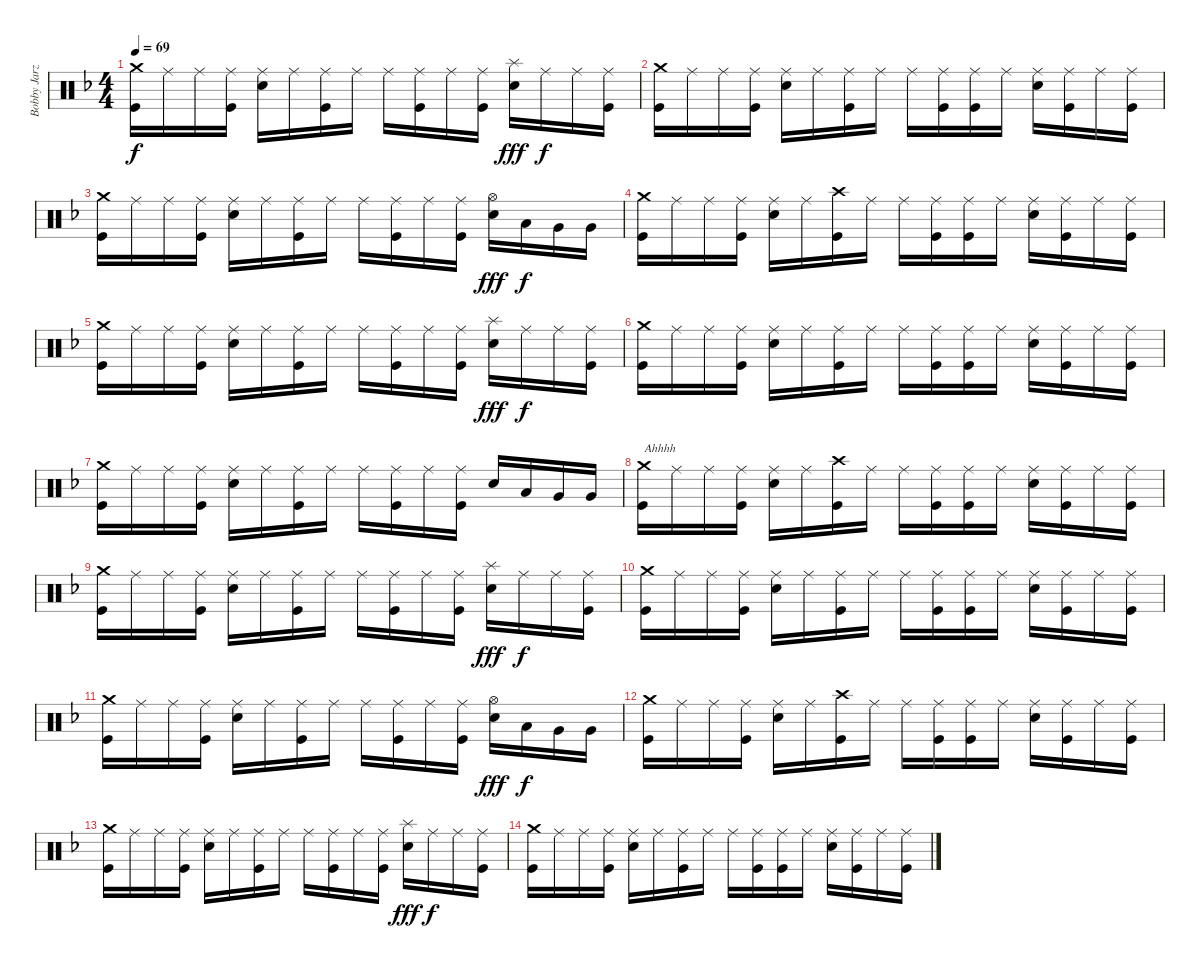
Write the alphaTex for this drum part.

\track ("Bobby Jarzombek" "Bobby Jarz") {instrument percussion}
\staff {score}
\articulation defaults
\ts (4 4)
\tempo 69
\clef neutral
\ks dminor
("Crash medium (hit)" "Kick (hit)").16{dy f} "Ride (middle)".16 "Ride (middle)".16 ("Ride (middle)" "Kick (hit)").16 ("Ride (middle)" "Electric Snare (hit)").16 "Ride (middle)".16 ("Ride (middle)" "Kick (hit)").16 "Ride (middle)".16 "Ride (middle)".16 ("Ride (middle)" "Kick (hit)").16 "Ride (middle)".16 ("Ride (middle)" "Kick (hit)").16 ("Splash (hit)" "Electric Snare (hit)").16{dy fff} "Ride (middle)".16{dy f} "Ride (middle)".16 ("Ride (middle)" "Kick (hit)").16 |
("Crash medium (hit)" "Kick (hit)").16 "Ride (middle)".16 "Ride (middle)".16 ("Ride (middle)" "Kick (hit)").16 ("Ride (middle)" "Electric Snare (hit)").16 "Ride (middle)".16 ("Ride (middle)" "Kick (hit)").16 "Ride (middle)".16 "Ride (middle)".16 ("Ride (middle)" "Kick (hit)").16 ("Ride (middle)" "Kick (hit)").16 "Ride (middle)".16 ("Ride (middle)" "Electric Snare (hit)").16 ("Ride (middle)" "Kick (hit)").16 "Ride (middle)".16 ("Ride (middle)" "Kick (hit)").16 |
("Crash medium (hit)" "Kick (hit)").16 "Ride (middle)".16 "Ride (middle)".16 ("Ride (middle)" "Kick (hit)").16 ("Ride (middle)" "Electric Snare (hit)").16 "Ride (middle)".16 ("Ride (middle)" "Kick (hit)").16 "Ride (middle)".16 "Ride (middle)".16 ("Ride (middle)" "Kick (hit)").16 "Ride (middle)".16 ("Ride (middle)" "Kick (hit)").16 ("Hi-Hat (open)" "Electric Snare (hit)").16{dy fff} "Low Tom (hit)".16{dy f} "Very Low Tom (hit)".16 "Very Low Tom (hit)".16 |
("Crash medium (hit)" "Kick (hit)").16 "Ride (middle)".16 "Ride (middle)".16 ("Ride (middle)" "Kick (hit)").16 ("Ride (middle)" "Electric Snare (hit)").16 "Ride (middle)".16 ("Crash high (hit)" "Kick (hit)").16 "Ride (middle)".16 "Ride (middle)".16 ("Ride (middle)" "Kick (hit)").16 ("Ride (middle)" "Kick (hit)").16 "Ride (middle)".16 ("Ride (middle)" "Electric Snare (hit)").16 ("Ride (middle)" "Kick (hit)").16 "Ride (middle)".16 ("Ride (middle)" "Kick (hit)").16 |
("Crash medium (hit)" "Kick (hit)").16 "Ride (middle)".16 "Ride (middle)".16 ("Ride (middle)" "Kick (hit)").16 ("Ride (middle)" "Electric Snare (hit)").16 "Ride (middle)".16 ("Ride (middle)" "Kick (hit)").16 "Ride (middle)".16 "Ride (middle)".16 ("Ride (middle)" "Kick (hit)").16 "Ride (middle)".16 ("Ride (middle)" "Kick (hit)").16 ("Splash (hit)" "Electric Snare (hit)").16{dy fff} "Ride (middle)".16{dy f} "Ride (middle)".16 ("Ride (middle)" "Kick (hit)").16 |
("Crash medium (hit)" "Kick (hit)").16 "Ride (middle)".16 "Ride (middle)".16 ("Ride (middle)" "Kick (hit)").16 ("Ride (middle)" "Electric Snare (hit)").16 "Ride (middle)".16 ("Ride (middle)" "Kick (hit)").16 "Ride (middle)".16 "Ride (middle)".16 ("Ride (middle)" "Kick (hit)").16 ("Ride (middle)" "Kick (hit)").16 "Ride (middle)".16 ("Ride (middle)" "Electric Snare (hit)").16 ("Ride (middle)" "Kick (hit)").16 "Ride (middle)".16 ("Ride (middle)" "Kick (hit)").16 |
("Crash medium (hit)" "Kick (hit)").16 "Ride (middle)".16 "Ride (middle)".16 ("Ride (middle)" "Kick (hit)").16 ("Ride (middle)" "Electric Snare (hit)").16 "Ride (middle)".16 ("Ride (middle)" "Kick (hit)").16 "Ride (middle)".16 "Ride (middle)".16 ("Ride (middle)" "Kick (hit)").16 "Ride (middle)".16 ("Ride (middle)" "Kick (hit)").16 "Electric Snare (hit)".16 "Low Tom (hit)".16 "Very Low Tom (hit)".16 "Very Low Tom (hit)".16 |
("Crash medium (hit)" "Kick (hit)").16{txt "Ahhhh"} "Ride (middle)".16 "Ride (middle)".16 ("Ride (middle)" "Kick (hit)").16 ("Ride (middle)" "Electric Snare (hit)").16 "Ride (middle)".16 ("Crash high (hit)" "Kick (hit)").16 "Ride (middle)".16 "Ride (middle)".16 ("Ride (middle)" "Kick (hit)").16 ("Ride (middle)" "Kick (hit)").16 "Ride (middle)".16 ("Ride (middle)" "Electric Snare (hit)").16 ("Ride (middle)" "Kick (hit)").16 "Ride (middle)".16 ("Ride (middle)" "Kick (hit)").16 |
("Crash medium (hit)" "Kick (hit)").16{volume 9} "Ride (middle)".16 "Ride (middle)".16 ("Ride (middle)" "Kick (hit)").16 ("Ride (middle)" "Electric Snare (hit)").16 "Ride (middle)".16 ("Ride (middle)" "Kick (hit)").16 "Ride (middle)".16 "Ride (middle)".16 ("Ride (middle)" "Kick (hit)").16 "Ride (middle)".16 ("Ride (middle)" "Kick (hit)").16 ("Splash (hit)" "Electric Snare (hit)").16{dy fff} "Ride (middle)".16{dy f} "Ride (middle)".16 ("Ride (middle)" "Kick (hit)").16 |
("Crash medium (hit)" "Kick (hit)").16 "Ride (middle)".16 "Ride (middle)".16 ("Ride (middle)" "Kick (hit)").16 ("Ride (middle)" "Electric Snare (hit)").16 "Ride (middle)".16 ("Ride (middle)" "Kick (hit)").16 "Ride (middle)".16 "Ride (middle)".16 ("Ride (middle)" "Kick (hit)").16 ("Ride (middle)" "Kick (hit)").16 "Ride (middle)".16 ("Ride (middle)" "Electric Snare (hit)").16 ("Ride (middle)" "Kick (hit)").16 "Ride (middle)".16 ("Ride (middle)" "Kick (hit)").16 |
("Crash medium (hit)" "Kick (hit)").16{volume 0} "Ride (middle)".16 "Ride (middle)".16 ("Ride (middle)" "Kick (hit)").16 ("Ride (middle)" "Electric Snare (hit)").16 "Ride (middle)".16 ("Ride (middle)" "Kick (hit)").16 "Ride (middle)".16 "Ride (middle)".16 ("Ride (middle)" "Kick (hit)").16 "Ride (middle)".16 ("Ride (middle)" "Kick (hit)").16 ("Hi-Hat (open)" "Electric Snare (hit)").16{dy fff} "Low Tom (hit)".16{dy f} "Very Low Tom (hit)".16 "Very Low Tom (hit)".16 |
("Crash medium (hit)" "Kick (hit)").16 "Ride (middle)".16 "Ride (middle)".16 ("Ride (middle)" "Kick (hit)").16 ("Ride (middle)" "Electric Snare (hit)").16 "Ride (middle)".16 ("Crash high (hit)" "Kick (hit)").16 "Ride (middle)".16 "Ride (middle)".16 ("Ride (middle)" "Kick (hit)").16 ("Ride (middle)" "Kick (hit)").16 "Ride (middle)".16 ("Ride (middle)" "Electric Snare (hit)").16 ("Ride (middle)" "Kick (hit)").16 "Ride (middle)".16 ("Ride (middle)" "Kick (hit)").16 |
("Crash medium (hit)" "Kick (hit)").16 "Ride (middle)".16 "Ride (middle)".16 ("Ride (middle)" "Kick (hit)").16 ("Ride (middle)" "Electric Snare (hit)").16 "Ride (middle)".16 ("Ride (middle)" "Kick (hit)").16 "Ride (middle)".16 "Ride (middle)".16 ("Ride (middle)" "Kick (hit)").16 "Ride (middle)".16 ("Ride (middle)" "Kick (hit)").16 ("Splash (hit)" "Electric Snare (hit)").16{dy fff} "Ride (middle)".16{dy f} "Ride (middle)".16 ("Ride (middle)" "Kick (hit)").16 |
("Crash medium (hit)" "Kick (hit)").16 "Ride (middle)".16 "Ride (middle)".16 ("Ride (middle)" "Kick (hit)").16 ("Ride (middle)" "Electric Snare (hit)").16 "Ride (middle)".16 ("Ride (middle)" "Kick (hit)").16 "Ride (middle)".16 "Ride (middle)".16 ("Ride (middle)" "Kick (hit)").16 ("Ride (middle)" "Kick (hit)").16 "Ride (middle)".16 ("Ride (middle)" "Electric Snare (hit)").16 ("Ride (middle)" "Kick (hit)").16 "Ride (middle)".16 ("Ride (middle)" "Kick (hit)").16
